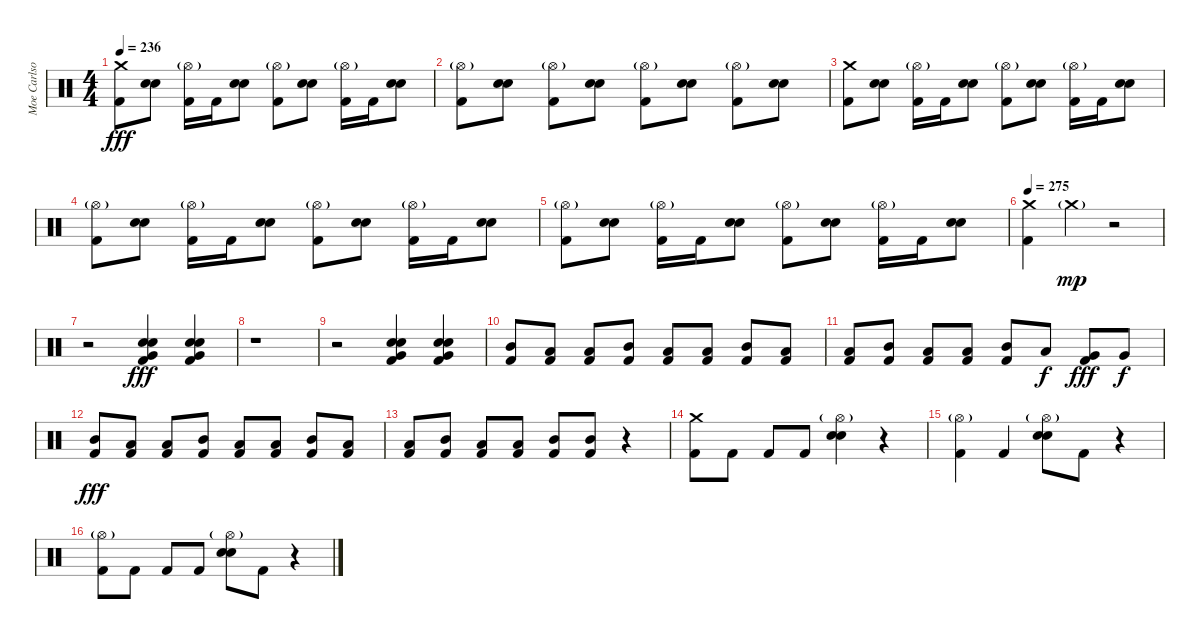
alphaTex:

\track ("Moe Carlson" "Moe Carlso") {instrument percussion}
\staff {score}
\articulation defaults
\ts (4 4)
\tempo 236
\clef neutral
\ks c
("Crash medium (hit)" "Kick (hit) 2").8{dy fff} ("Snare (hit) 2" "Electric Snare (hit)").8 ("Hi-Hat (open)"{g} "Kick (hit) 2").16 "Kick (hit) 2".16 ("Snare (hit) 2" "Electric Snare (hit)").8 ("Hi-Hat (open)"{g} "Kick (hit) 2").8 ("Snare (hit) 2" "Electric Snare (hit)").8 ("Hi-Hat (open)"{g} "Kick (hit) 2").16 "Kick (hit) 2".16 ("Snare (hit) 2" "Electric Snare (hit)").8 |
("Hi-Hat (open)"{g} "Kick (hit) 2").8 ("Snare (hit) 2" "Electric Snare (hit)").8 ("Hi-Hat (open)"{g} "Kick (hit) 2").8 ("Snare (hit) 2" "Electric Snare (hit)").8 ("Hi-Hat (open)"{g} "Kick (hit) 2").8 ("Snare (hit) 2" "Electric Snare (hit)").8 ("Hi-Hat (open)"{g} "Kick (hit) 2").8 ("Snare (hit) 2" "Electric Snare (hit)").8 |
("Crash medium (hit)" "Kick (hit) 2").8 ("Snare (hit) 2" "Electric Snare (hit)").8 ("Hi-Hat (open)"{g} "Kick (hit) 2").16 "Kick (hit) 2".16 ("Snare (hit) 2" "Electric Snare (hit)").8 ("Hi-Hat (open)"{g} "Kick (hit) 2").8 ("Snare (hit) 2" "Electric Snare (hit)").8 ("Hi-Hat (open)"{g} "Kick (hit) 2").16 "Kick (hit) 2".16 ("Snare (hit) 2" "Electric Snare (hit)").8 |
("Hi-Hat (open)"{g} "Kick (hit) 2").8 ("Snare (hit) 2" "Electric Snare (hit)").8 ("Hi-Hat (open)"{g} "Kick (hit) 2").16 "Kick (hit) 2".16 ("Snare (hit) 2" "Electric Snare (hit)").8 ("Hi-Hat (open)"{g} "Kick (hit) 2").8 ("Snare (hit) 2" "Electric Snare (hit)").8 ("Hi-Hat (open)"{g} "Kick (hit) 2").16 "Kick (hit) 2".16 ("Snare (hit) 2" "Electric Snare (hit)").8 |
("Hi-Hat (open)"{g} "Kick (hit) 2").8 ("Snare (hit) 2" "Electric Snare (hit)").8 ("Hi-Hat (open)"{g} "Kick (hit) 2").16 "Kick (hit) 2".16 ("Snare (hit) 2" "Electric Snare (hit)").8 ("Hi-Hat (open)"{g} "Kick (hit) 2").8 ("Snare (hit) 2" "Electric Snare (hit)").8 ("Hi-Hat (open)"{g} "Kick (hit) 2").16 "Kick (hit) 2".16 ("Snare (hit) 2" "Electric Snare (hit)").8 |
\tempo 275
("Crash medium (hit)" "Kick (hit) 2").4 "Crash medium (hit)"{g}.4{dy mp volume 0} r.2 |
r.2 ("Snare (hit) 2" "Electric Snare (hit)" "Very Low Tom (hit)" "Kick (hit) 2").4{dy fff volume 16} ("Snare (hit) 2" "Electric Snare (hit)" "Very Low Tom (hit)" "Kick (hit) 2").4 |
r.1 |
r.2 ("Snare (hit) 2" "Electric Snare (hit)" "Very Low Tom (hit)" "Kick (hit) 2").4 ("Snare (hit) 2" "Electric Snare (hit)" "Very Low Tom (hit)" "Kick (hit) 2").4 |
("Mid Tom (hit)" "Kick (hit) 2").8 ("Low Tom (hit)" "Kick (hit) 2").8 ("Low Tom (hit)" "Kick (hit) 2").8 ("Mid Tom (hit)" "Kick (hit) 2").8 ("Low Tom (hit)" "Kick (hit) 2").8 ("Low Tom (hit)" "Kick (hit) 2").8 ("Mid Tom (hit)" "Kick (hit) 2").8 ("Low Tom (hit)" "Kick (hit) 2").8 |
("Low Tom (hit)" "Kick (hit) 2").8 ("Mid Tom (hit)" "Kick (hit) 2").8 ("Low Tom (hit)" "Kick (hit) 2").8 ("Low Tom (hit)" "Kick (hit) 2").8 ("Mid Tom (hit)" "Kick (hit) 2").8 "Low Tom (hit)".8{dy f} ("Very Low Tom (hit)" "Kick (hit) 2").8{dy fff} "Very Low Tom (hit)".8{dy f} |
("Mid Tom (hit)" "Kick (hit) 2").8{dy fff} ("Low Tom (hit)" "Kick (hit) 2").8 ("Low Tom (hit)" "Kick (hit) 2").8 ("Mid Tom (hit)" "Kick (hit) 2").8 ("Low Tom (hit)" "Kick (hit) 2").8 ("Low Tom (hit)" "Kick (hit) 2").8 ("Mid Tom (hit)" "Kick (hit) 2").8 ("Low Tom (hit)" "Kick (hit) 2").8 |
("Low Tom (hit)" "Kick (hit) 2").8 ("Mid Tom (hit)" "Kick (hit) 2").8 ("Low Tom (hit)" "Kick (hit) 2").8 ("Low Tom (hit)" "Kick (hit) 2").8 ("Mid Tom (hit)" "Kick (hit) 2").8 ("Mid Tom (hit)" "Kick (hit) 2").8 r.4 |
("Crash medium (hit)" "Kick (hit) 2").8 "Kick (hit) 2".8 "Kick (hit) 2".8 "Kick (hit) 2".8 ("Hi-Hat (open)"{g} "Snare (hit) 2" "Electric Snare (hit)").4 r.4 |
("Hi-Hat (open)"{g} "Kick (hit) 2").4 "Kick (hit) 2".4 ("Hi-Hat (open)"{g} "Snare (hit) 2" "Electric Snare (hit)").8 "Kick (hit) 2".8 r.4 |
("Hi-Hat (open)"{g} "Kick (hit) 2").8 "Kick (hit) 2".8 "Kick (hit) 2".8 "Kick (hit) 2".8 ("Hi-Hat (open)"{g} "Snare (hit) 2" "Electric Snare (hit)").8 "Kick (hit) 2".8 r.4
